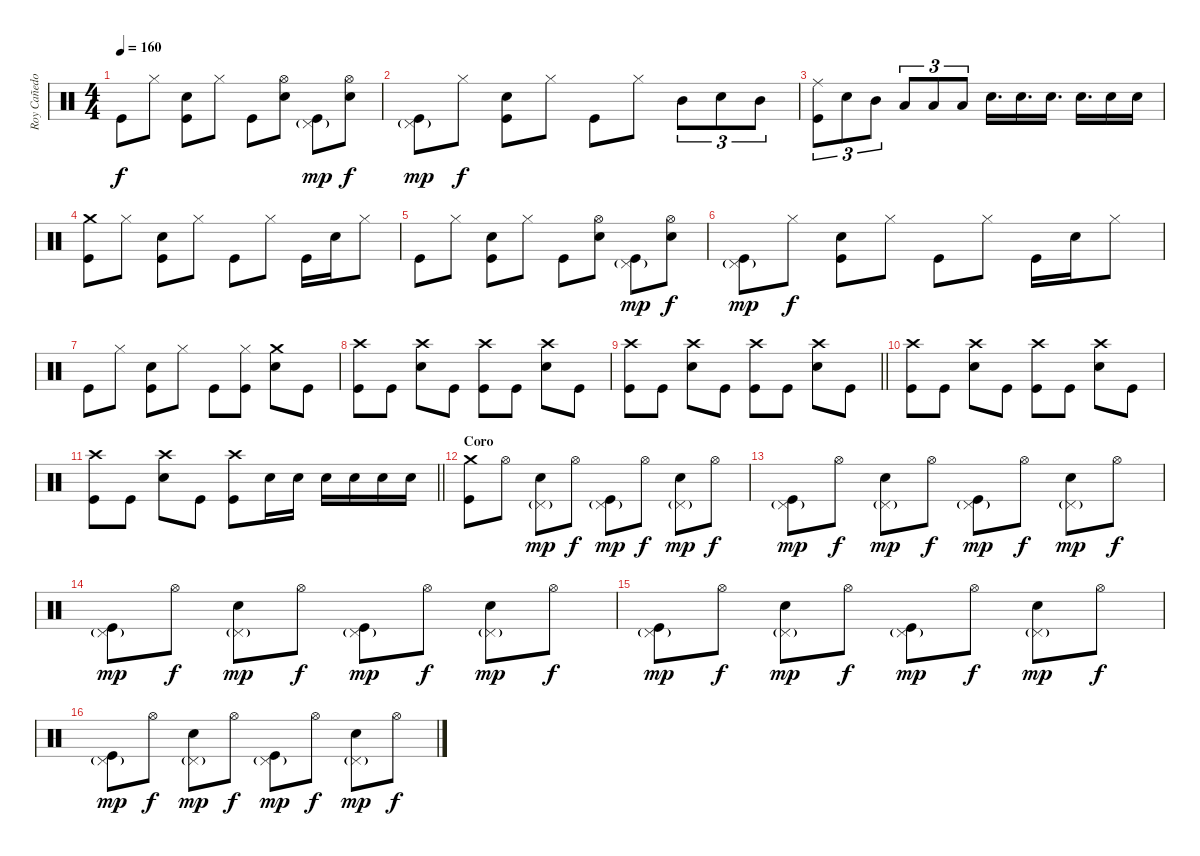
\track ("Roy Cañedo" "Roy Cañedo") {instrument percussion}
\staff {score}
\articulation defaults
\ts (4 4)
\tempo 160
\clef neutral
\ks c "Kick (hit)".8{dy f} "Hi-Hat (closed)".8
("Snare (hit) 2" "Kick (hit)").8 "Hi-Hat (closed)".8 "Kick (hit)".8 ("Hi-Hat (open)" "Snare (hit) 2").8 ("Pedal Hi-Hat (hit)"{g} "Kick (hit)").8{dy mp} ("Hi-Hat (open)" "Snare (hit) 2").8{dy f} |
("Pedal Hi-Hat (hit)"{g} "Kick (hit)").8{dy mp} "Hi-Hat (closed)".8{dy f} ("Snare (hit) 2" "Kick (hit)").8 "Hi-Hat (closed)".8 "Kick (hit)".8 "Hi-Hat (closed)".8 "Mid Tom (hit)".8{tu (3 2)} "Snare (hit) 2".8{tu (3 2)} "Mid Tom (hit)".8{tu (3 2)} |
("Ride (middle)" "Kick (hit)").8{tu (3 2)} "Snare (hit) 2".8{tu (3 2)} "Mid Tom (hit)".8{tu (3 2)} "Low Tom (hit)".8{tu (3 2)} "Low Tom (hit)".8{tu (3 2)} "Low Tom (hit)".8{tu (3 2)} "Snare (hit) 2".16{d} "Snare (hit) 2".16{d} "Snare (hit) 2".16{d} "Snare (hit) 2".16{d} "Snare (hit) 2".16 "Snare (hit) 2".16 |
("Crash medium (hit)" "Kick (hit)").8 "Hi-Hat (closed)".8 ("Snare (hit) 2" "Kick (hit)").8 "Hi-Hat (closed)".8 "Kick (hit)".8 "Hi-Hat (closed)".8 "Kick (hit)".16 "Snare (hit) 2".16 "Hi-Hat (closed)".8 |
"Kick (hit)".8 "Hi-Hat (closed)".8 ("Snare (hit) 2" "Kick (hit)").8 "Hi-Hat (closed)".8 "Kick (hit)".8 ("Hi-Hat (open)" "Snare (hit) 2").8 ("Pedal Hi-Hat (hit)"{g} "Kick (hit)").8{dy mp} ("Hi-Hat (open)" "Snare (hit) 2").8{dy f} |
("Pedal Hi-Hat (hit)"{g} "Kick (hit)").8{dy mp} "Hi-Hat (closed)".8{dy f} ("Snare (hit) 2" "Kick (hit)").8 "Hi-Hat (closed)".8 "Kick (hit)".8 "Hi-Hat (closed)".8 "Kick (hit)".16 "Snare (hit) 2".16 "Hi-Hat (closed)".8 |
"Kick (hit)".8 "Hi-Hat (closed)".8 ("Snare (hit) 2" "Kick (hit)").8 "Hi-Hat (closed)".8 "Kick (hit)".8 ("Hi-Hat (closed)" "Kick (hit)").8 ("Crash medium (hit)" "Snare (hit) 2").8 "Kick (hit)".8 |
("Crash high (hit)" "Kick (hit)").8 "Kick (hit)".8 ("Crash high (hit)" "Snare (hit) 2").8 "Kick (hit)".8 ("Crash high (hit)" "Kick (hit)").8 "Kick (hit)".8 ("Crash high (hit)" "Snare (hit) 2").8 "Kick (hit)".8 |
\barLineRight lightlight
("Crash high (hit)" "Kick (hit)").8 "Kick (hit)".8 ("Crash high (hit)" "Snare (hit) 2").8 "Kick (hit)".8 ("Crash high (hit)" "Kick (hit)").8 "Kick (hit)".8 ("Crash high (hit)" "Snare (hit) 2").8 "Kick (hit)".8 |
("Crash high (hit)" "Kick (hit)").8 "Kick (hit)".8 ("Crash high (hit)" "Snare (hit) 2").8 "Kick (hit)".8 ("Crash high (hit)" "Kick (hit)").8 "Kick (hit)".8 ("Crash high (hit)" "Snare (hit) 2").8 "Kick (hit)".8 |
\barLineRight lightlight
("Crash high (hit)" "Kick (hit)").8 "Kick (hit)".8 ("Crash high (hit)" "Snare (hit) 2").8 "Kick (hit)".8 ("Crash high (hit)" "Kick (hit)").8 "Snare (hit) 2".16 "Snare (hit) 2".16 "Snare (hit) 2".16 "Snare (hit) 2".16 "Snare (hit) 2".16 "Snare (hit) 2".16 |
\section ("" "Coro")
("Crash medium (hit)" "Kick (hit)").8 "Hi-Hat (open)".8 ("Pedal Hi-Hat (hit)"{g} "Snare (hit) 2").8{dy mp} "Hi-Hat (open)".8{dy f} ("Pedal Hi-Hat (hit)"{g} "Kick (hit)").8{dy mp} "Hi-Hat (open)".8{dy f} ("Pedal Hi-Hat (hit)"{g} "Snare (hit) 2").8{dy mp} "Hi-Hat (open)".8{dy f} |
("Pedal Hi-Hat (hit)"{g} "Kick (hit)").8{dy mp} "Hi-Hat (open)".8{dy f} ("Pedal Hi-Hat (hit)"{g} "Snare (hit) 2").8{dy mp} "Hi-Hat (open)".8{dy f} ("Pedal Hi-Hat (hit)"{g} "Kick (hit)").8{dy mp} "Hi-Hat (open)".8{dy f} ("Pedal Hi-Hat (hit)"{g} "Snare (hit) 2").8{dy mp} "Hi-Hat (open)".8{dy f} |
("Pedal Hi-Hat (hit)"{g} "Kick (hit)").8{dy mp} "Hi-Hat (open)".8{dy f} ("Pedal Hi-Hat (hit)"{g} "Snare (hit) 2").8{dy mp} "Hi-Hat (open)".8{dy f} ("Pedal Hi-Hat (hit)"{g} "Kick (hit)").8{dy mp} "Hi-Hat (open)".8{dy f} ("Pedal Hi-Hat (hit)"{g} "Snare (hit) 2").8{dy mp} "Hi-Hat (open)".8{dy f} |
("Pedal Hi-Hat (hit)"{g} "Kick (hit)").8{dy mp} "Hi-Hat (open)".8{dy f} ("Pedal Hi-Hat (hit)"{g} "Snare (hit) 2").8{dy mp} "Hi-Hat (open)".8{dy f} ("Pedal Hi-Hat (hit)"{g} "Kick (hit)").8{dy mp} "Hi-Hat (open)".8{dy f} ("Pedal Hi-Hat (hit)"{g} "Snare (hit) 2").8{dy mp} "Hi-Hat (open)".8{dy f} |
("Pedal Hi-Hat (hit)"{g} "Kick (hit)").8{dy mp} "Hi-Hat (open)".8{dy f} ("Pedal Hi-Hat (hit)"{g} "Snare (hit) 2").8{dy mp} "Hi-Hat (open)".8{dy f} ("Pedal Hi-Hat (hit)"{g} "Kick (hit)").8{dy mp} "Hi-Hat (open)".8{dy f} ("Pedal Hi-Hat (hit)"{g} "Snare (hit) 2").8{dy mp} "Hi-Hat (open)".8{dy f}
